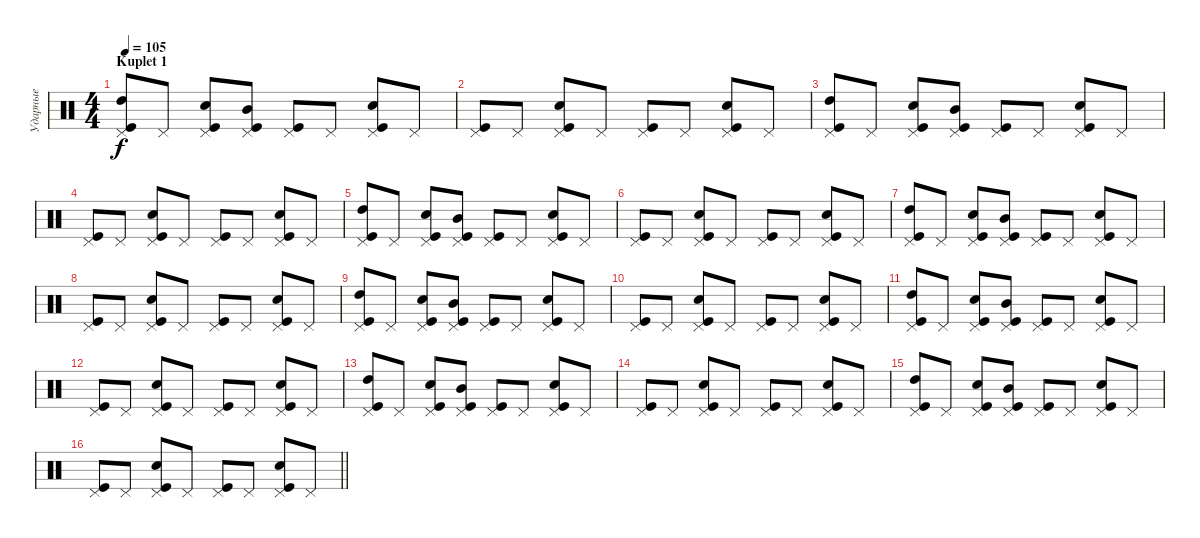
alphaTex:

\track ("Ударные" "Ударные") {instrument percussion}
\staff {score}
\articulation defaults
\ts (4 4)
\section ("" "Kuplet 1")
\tempo 105
\clef neutral
\ks c
("Pedal Hi-Hat (hit)" "Kick (hit)" "High Tom (hit)").8{dy f} "Pedal Hi-Hat (hit)".8 ("Pedal Hi-Hat (hit)" "Kick (hit)" "Snare (hit) 2").8 ("Pedal Hi-Hat (hit)" "Kick (hit)" "Mid Tom (hit)").8 ("Pedal Hi-Hat (hit)" "Kick (hit)").8 "Pedal Hi-Hat (hit)".8 ("Pedal Hi-Hat (hit)" "Kick (hit)" "Snare (hit) 2").8 "Pedal Hi-Hat (hit)".8 |
("Pedal Hi-Hat (hit)" "Kick (hit)").8 "Pedal Hi-Hat (hit)".8 ("Pedal Hi-Hat (hit)" "Kick (hit)" "Snare (hit) 2").8 "Pedal Hi-Hat (hit)".8 ("Pedal Hi-Hat (hit)" "Kick (hit)").8 "Pedal Hi-Hat (hit)".8 ("Pedal Hi-Hat (hit)" "Kick (hit)" "Snare (hit) 2").8 "Pedal Hi-Hat (hit)".8 |
("Pedal Hi-Hat (hit)" "Kick (hit)" "High Tom (hit)").8 "Pedal Hi-Hat (hit)".8 ("Pedal Hi-Hat (hit)" "Kick (hit)" "Snare (hit) 2").8 ("Pedal Hi-Hat (hit)" "Kick (hit)" "Mid Tom (hit)").8 ("Pedal Hi-Hat (hit)" "Kick (hit)").8 "Pedal Hi-Hat (hit)".8 ("Pedal Hi-Hat (hit)" "Kick (hit)" "Snare (hit) 2").8 "Pedal Hi-Hat (hit)".8 |
("Pedal Hi-Hat (hit)" "Kick (hit)").8 "Pedal Hi-Hat (hit)".8 ("Pedal Hi-Hat (hit)" "Kick (hit)" "Snare (hit) 2").8 "Pedal Hi-Hat (hit)".8 ("Pedal Hi-Hat (hit)" "Kick (hit)").8 "Pedal Hi-Hat (hit)".8 ("Pedal Hi-Hat (hit)" "Kick (hit)" "Snare (hit) 2").8 "Pedal Hi-Hat (hit)".8 |
("Pedal Hi-Hat (hit)" "Kick (hit)" "High Tom (hit)").8 "Pedal Hi-Hat (hit)".8 ("Pedal Hi-Hat (hit)" "Kick (hit)" "Snare (hit) 2").8 ("Pedal Hi-Hat (hit)" "Kick (hit)" "Mid Tom (hit)").8 ("Pedal Hi-Hat (hit)" "Kick (hit)").8 "Pedal Hi-Hat (hit)".8 ("Pedal Hi-Hat (hit)" "Kick (hit)" "Snare (hit) 2").8 "Pedal Hi-Hat (hit)".8 |
("Pedal Hi-Hat (hit)" "Kick (hit)").8 "Pedal Hi-Hat (hit)".8 ("Pedal Hi-Hat (hit)" "Kick (hit)" "Snare (hit) 2").8 "Pedal Hi-Hat (hit)".8 ("Pedal Hi-Hat (hit)" "Kick (hit)").8 "Pedal Hi-Hat (hit)".8 ("Pedal Hi-Hat (hit)" "Kick (hit)" "Snare (hit) 2").8 "Pedal Hi-Hat (hit)".8 |
("Pedal Hi-Hat (hit)" "Kick (hit)" "High Tom (hit)").8 "Pedal Hi-Hat (hit)".8 ("Pedal Hi-Hat (hit)" "Kick (hit)" "Snare (hit) 2").8 ("Pedal Hi-Hat (hit)" "Kick (hit)" "Mid Tom (hit)").8 ("Pedal Hi-Hat (hit)" "Kick (hit)").8 "Pedal Hi-Hat (hit)".8 ("Pedal Hi-Hat (hit)" "Kick (hit)" "Snare (hit) 2").8 "Pedal Hi-Hat (hit)".8 |
("Pedal Hi-Hat (hit)" "Kick (hit)").8 "Pedal Hi-Hat (hit)".8 ("Pedal Hi-Hat (hit)" "Kick (hit)" "Snare (hit) 2").8 "Pedal Hi-Hat (hit)".8 ("Pedal Hi-Hat (hit)" "Kick (hit)").8 "Pedal Hi-Hat (hit)".8 ("Pedal Hi-Hat (hit)" "Kick (hit)" "Snare (hit) 2").8 "Pedal Hi-Hat (hit)".8 |
("Pedal Hi-Hat (hit)" "Kick (hit)" "High Tom (hit)").8 "Pedal Hi-Hat (hit)".8 ("Pedal Hi-Hat (hit)" "Kick (hit)" "Snare (hit) 2").8 ("Pedal Hi-Hat (hit)" "Kick (hit)" "Mid Tom (hit)").8 ("Pedal Hi-Hat (hit)" "Kick (hit)").8 "Pedal Hi-Hat (hit)".8 ("Pedal Hi-Hat (hit)" "Kick (hit)" "Snare (hit) 2").8 "Pedal Hi-Hat (hit)".8 |
("Pedal Hi-Hat (hit)" "Kick (hit)").8 "Pedal Hi-Hat (hit)".8 ("Pedal Hi-Hat (hit)" "Kick (hit)" "Snare (hit) 2").8 "Pedal Hi-Hat (hit)".8 ("Pedal Hi-Hat (hit)" "Kick (hit)").8 "Pedal Hi-Hat (hit)".8 ("Pedal Hi-Hat (hit)" "Kick (hit)" "Snare (hit) 2").8 "Pedal Hi-Hat (hit)".8 |
("Pedal Hi-Hat (hit)" "Kick (hit)" "High Tom (hit)").8 "Pedal Hi-Hat (hit)".8 ("Pedal Hi-Hat (hit)" "Kick (hit)" "Snare (hit) 2").8 ("Pedal Hi-Hat (hit)" "Kick (hit)" "Mid Tom (hit)").8 ("Pedal Hi-Hat (hit)" "Kick (hit)").8 "Pedal Hi-Hat (hit)".8 ("Pedal Hi-Hat (hit)" "Kick (hit)" "Snare (hit) 2").8 "Pedal Hi-Hat (hit)".8 |
("Pedal Hi-Hat (hit)" "Kick (hit)").8 "Pedal Hi-Hat (hit)".8 ("Pedal Hi-Hat (hit)" "Kick (hit)" "Snare (hit) 2").8 "Pedal Hi-Hat (hit)".8 ("Pedal Hi-Hat (hit)" "Kick (hit)").8 "Pedal Hi-Hat (hit)".8 ("Pedal Hi-Hat (hit)" "Kick (hit)" "Snare (hit) 2").8 "Pedal Hi-Hat (hit)".8 |
("Pedal Hi-Hat (hit)" "Kick (hit)" "High Tom (hit)").8 "Pedal Hi-Hat (hit)".8 ("Pedal Hi-Hat (hit)" "Kick (hit)" "Snare (hit) 2").8 ("Pedal Hi-Hat (hit)" "Kick (hit)" "Mid Tom (hit)").8 ("Pedal Hi-Hat (hit)" "Kick (hit)").8 "Pedal Hi-Hat (hit)".8 ("Pedal Hi-Hat (hit)" "Kick (hit)" "Snare (hit) 2").8 "Pedal Hi-Hat (hit)".8 |
("Pedal Hi-Hat (hit)" "Kick (hit)").8 "Pedal Hi-Hat (hit)".8 ("Pedal Hi-Hat (hit)" "Kick (hit)" "Snare (hit) 2").8 "Pedal Hi-Hat (hit)".8 ("Pedal Hi-Hat (hit)" "Kick (hit)").8 "Pedal Hi-Hat (hit)".8 ("Pedal Hi-Hat (hit)" "Kick (hit)" "Snare (hit) 2").8 "Pedal Hi-Hat (hit)".8 |
("Pedal Hi-Hat (hit)" "Kick (hit)" "High Tom (hit)").8 "Pedal Hi-Hat (hit)".8 ("Pedal Hi-Hat (hit)" "Kick (hit)" "Snare (hit) 2").8 ("Pedal Hi-Hat (hit)" "Kick (hit)" "Mid Tom (hit)").8 ("Pedal Hi-Hat (hit)" "Kick (hit)").8 "Pedal Hi-Hat (hit)".8 ("Pedal Hi-Hat (hit)" "Kick (hit)" "Snare (hit) 2").8 "Pedal Hi-Hat (hit)".8 |
\barLineRight lightlight
("Pedal Hi-Hat (hit)" "Kick (hit)").8 "Pedal Hi-Hat (hit)".8 ("Pedal Hi-Hat (hit)" "Kick (hit)" "Snare (hit) 2").8 "Pedal Hi-Hat (hit)".8 ("Pedal Hi-Hat (hit)" "Kick (hit)").8 "Pedal Hi-Hat (hit)".8 ("Pedal Hi-Hat (hit)" "Kick (hit)" "Snare (hit) 2").8 "Pedal Hi-Hat (hit)".8
